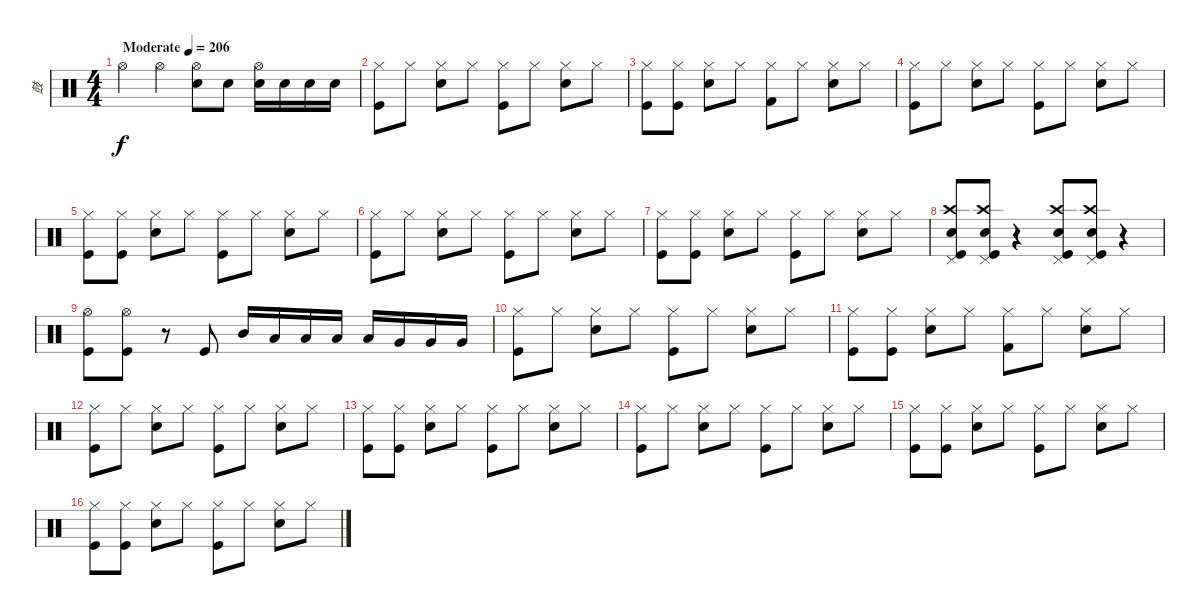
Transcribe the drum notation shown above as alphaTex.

\track ("鼓" "鼓") {instrument percussion}
\staff {score}
\articulation defaults
\ts (4 4)
\tempo (206 "Moderate")
\clef neutral
\ks c "Hi-Hat (open)".4{dy f} "Hi-Hat (open)".4
("Hi-Hat (open)" "Snare (hit) 2").8 "Snare (hit) 2".8 ("Hi-Hat (open)" "Snare (hit) 2").16 "Snare (hit) 2".16 "Snare (hit) 2".16 "Snare (hit) 2".16 |
("Hi-Hat (closed)" "Kick (hit)").8 "Hi-Hat (closed)".8 ("Hi-Hat (closed)" "Electric Snare (hit)").8 "Hi-Hat (closed)".8 ("Hi-Hat (closed)" "Kick (hit)").8 "Hi-Hat (closed)".8 ("Hi-Hat (closed)" "Electric Snare (hit)").8 "Hi-Hat (closed)".8 |
("Hi-Hat (closed)" "Kick (hit)").8 ("Hi-Hat (closed)" "Kick (hit)").8 ("Hi-Hat (closed)" "Electric Snare (hit)").8 "Hi-Hat (closed)".8 ("Hi-Hat (closed)" "Kick (hit) 2").8 "Hi-Hat (closed)".8 ("Hi-Hat (closed)" "Electric Snare (hit)").8 "Hi-Hat (closed)".8 |
("Hi-Hat (closed)" "Kick (hit)").8 "Hi-Hat (closed)".8 ("Hi-Hat (closed)" "Electric Snare (hit)").8 "Hi-Hat (closed)".8 ("Hi-Hat (closed)" "Kick (hit)").8 "Hi-Hat (closed)".8 ("Hi-Hat (closed)" "Electric Snare (hit)").8 "Hi-Hat (closed)".8 |
("Hi-Hat (closed)" "Kick (hit)").8 ("Hi-Hat (closed)" "Kick (hit)").8 ("Hi-Hat (closed)" "Electric Snare (hit)").8 "Hi-Hat (closed)".8 ("Hi-Hat (closed)" "Kick (hit)").8 "Hi-Hat (closed)".8 ("Hi-Hat (closed)" "Electric Snare (hit)").8 "Hi-Hat (closed)".8 |
("Hi-Hat (closed)" "Kick (hit)").8 "Hi-Hat (closed)".8 ("Hi-Hat (closed)" "Electric Snare (hit)").8 "Hi-Hat (closed)".8 ("Hi-Hat (closed)" "Kick (hit)").8 "Hi-Hat (closed)".8 ("Hi-Hat (closed)" "Electric Snare (hit)").8 "Hi-Hat (closed)".8 |
("Hi-Hat (closed)" "Kick (hit)").8 ("Hi-Hat (closed)" "Kick (hit)").8 ("Hi-Hat (closed)" "Electric Snare (hit)").8 "Hi-Hat (closed)".8 ("Hi-Hat (closed)" "Kick (hit)").8 "Hi-Hat (closed)".8 ("Hi-Hat (closed)" "Electric Snare (hit)").8 "Hi-Hat (closed)".8 |
("Crash high (hit)" "Snare (hit) 2" "Pedal Hi-Hat (hit)" "Kick (hit)").8 ("Crash high (hit)" "Snare (hit) 2" "Pedal Hi-Hat (hit)" "Kick (hit)").8 r.4 ("Crash high (hit)" "Snare (hit) 2" "Pedal Hi-Hat (hit)" "Kick (hit)").8 ("Crash high (hit)" "Snare (hit) 2" "Pedal Hi-Hat (hit)" "Kick (hit)").8 r.4 |
("Hi-Hat (open)" "Kick (hit)").8 ("Hi-Hat (open)" "Kick (hit)").8 r.8 "Kick (hit)".8 "Mid Tom (hit)".16 "Low Tom (hit)".16 "Low Tom (hit)".16 "Low Tom (hit)".16 "Low Tom (hit)".16 "Very Low Tom (hit)".16 "Very Low Tom (hit)".16 "Very Low Tom (hit)".16 |
("Hi-Hat (closed)" "Kick (hit)").8 "Hi-Hat (closed)".8 ("Hi-Hat (closed)" "Electric Snare (hit)").8 "Hi-Hat (closed)".8 ("Hi-Hat (closed)" "Kick (hit)").8 "Hi-Hat (closed)".8 ("Hi-Hat (closed)" "Electric Snare (hit)").8 "Hi-Hat (closed)".8 |
("Hi-Hat (closed)" "Kick (hit)").8 ("Hi-Hat (closed)" "Kick (hit)").8 ("Hi-Hat (closed)" "Electric Snare (hit)").8 "Hi-Hat (closed)".8 ("Hi-Hat (closed)" "Kick (hit) 2").8 "Hi-Hat (closed)".8 ("Hi-Hat (closed)" "Electric Snare (hit)").8 "Hi-Hat (closed)".8 |
("Hi-Hat (closed)" "Kick (hit)").8 "Hi-Hat (closed)".8 ("Hi-Hat (closed)" "Electric Snare (hit)").8 "Hi-Hat (closed)".8 ("Hi-Hat (closed)" "Kick (hit)").8 "Hi-Hat (closed)".8 ("Hi-Hat (closed)" "Electric Snare (hit)").8 "Hi-Hat (closed)".8 |
("Hi-Hat (closed)" "Kick (hit)").8 ("Hi-Hat (closed)" "Kick (hit)").8 ("Hi-Hat (closed)" "Electric Snare (hit)").8 "Hi-Hat (closed)".8 ("Hi-Hat (closed)" "Kick (hit)").8 "Hi-Hat (closed)".8 ("Hi-Hat (closed)" "Electric Snare (hit)").8 "Hi-Hat (closed)".8 |
("Hi-Hat (closed)" "Kick (hit)").8 "Hi-Hat (closed)".8 ("Hi-Hat (closed)" "Electric Snare (hit)").8 "Hi-Hat (closed)".8 ("Hi-Hat (closed)" "Kick (hit)").8 "Hi-Hat (closed)".8 ("Hi-Hat (closed)" "Electric Snare (hit)").8 "Hi-Hat (closed)".8 |
("Hi-Hat (closed)" "Kick (hit)").8 ("Hi-Hat (closed)" "Kick (hit)").8 ("Hi-Hat (closed)" "Electric Snare (hit)").8 "Hi-Hat (closed)".8 ("Hi-Hat (closed)" "Kick (hit)").8 "Hi-Hat (closed)".8 ("Hi-Hat (closed)" "Electric Snare (hit)").8 "Hi-Hat (closed)".8 |
("Hi-Hat (closed)" "Kick (hit)").8 ("Hi-Hat (closed)" "Kick (hit)").8 ("Hi-Hat (closed)" "Electric Snare (hit)").8 "Hi-Hat (closed)".8 ("Hi-Hat (closed)" "Kick (hit)").8 "Hi-Hat (closed)".8 ("Hi-Hat (closed)" "Electric Snare (hit)").8 "Hi-Hat (closed)".8
